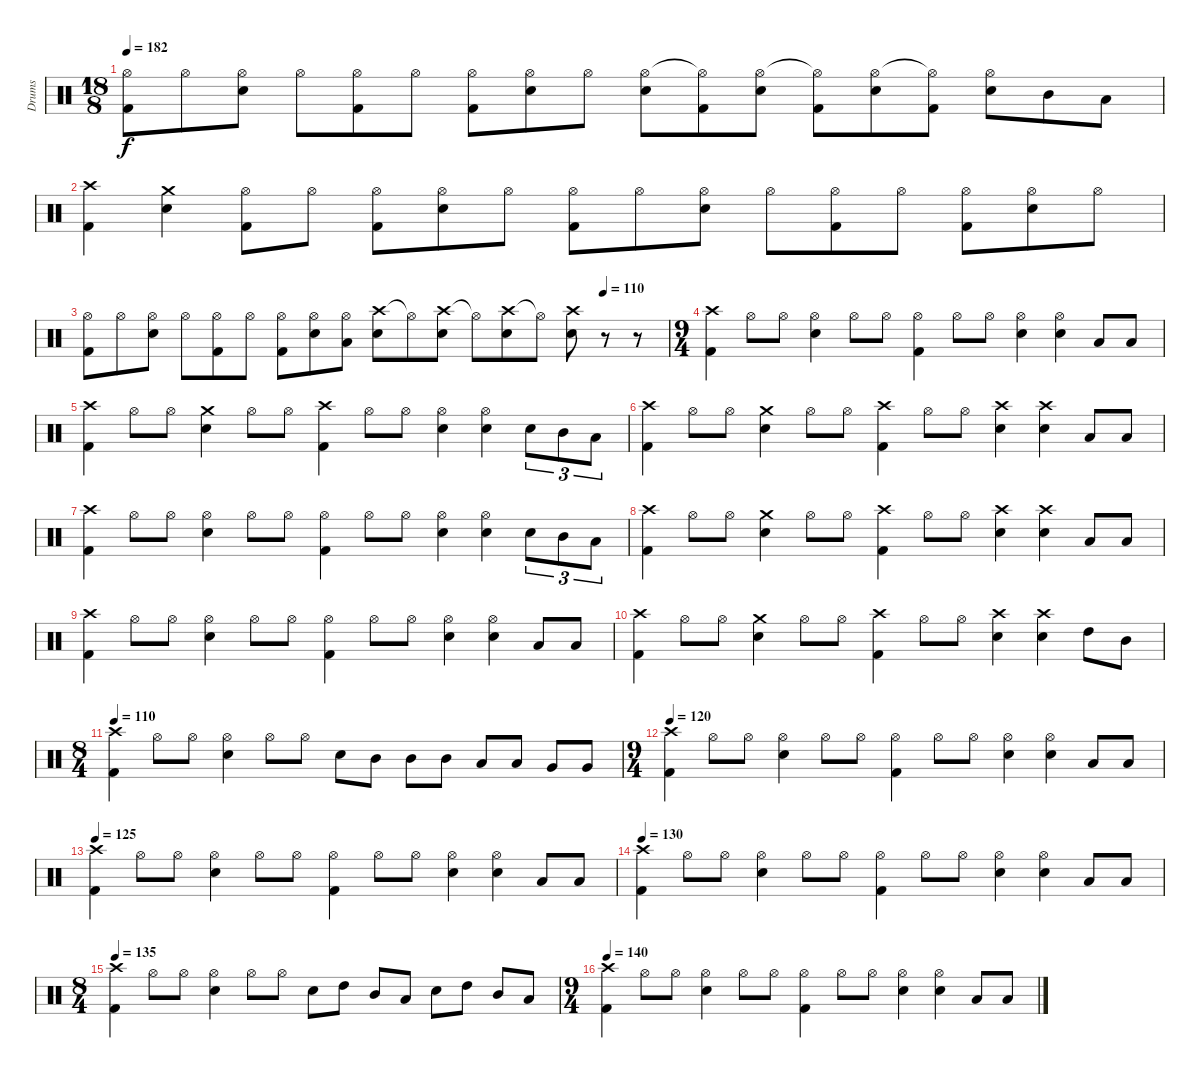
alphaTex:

\track ("Drums" "Drums") {instrument percussion}
\staff {score}
\articulation defaults
\ts (18 8)
\tempo 182
\clef neutral
\ks c
("Hi-Hat (open)" "Kick (hit) 2").8{dy f} "Hi-Hat (open)".8 ("Hi-Hat (open)" "Snare (hit) 2").8 "Hi-Hat (open)".8 ("Hi-Hat (open)" "Kick (hit) 2").8 "Hi-Hat (open)".8 ("Hi-Hat (open)" "Kick (hit) 2").8 ("Hi-Hat (open)" "Snare (hit) 2").8 "Hi-Hat (open)".8 ("Hi-Hat (open)" "Snare (hit) 2").8 ("Hi-Hat (open)"{t} "Kick (hit) 2").8 ("Hi-Hat (open)" "Snare (hit) 2").8 ("Hi-Hat (open)"{t} "Kick (hit) 2").8 ("Hi-Hat (open)" "Snare (hit) 2").8 ("Hi-Hat (open)"{t} "Kick (hit) 2").8 ("Hi-Hat (open)" "Snare (hit) 2").8 "Mid Tom (hit)".8 "Low Tom (hit)".8 |
("Crash high (hit)" "Kick (hit) 2").4 ("Crash medium (hit)" "Snare (hit) 2").4 ("Hi-Hat (open)" "Kick (hit) 2").8 "Hi-Hat (open)".8 ("Hi-Hat (open)" "Kick (hit) 2").8 ("Hi-Hat (open)" "Snare (hit) 2").8 "Hi-Hat (open)".8 ("Hi-Hat (open)" "Kick (hit) 2").8 "Hi-Hat (open)".8 ("Hi-Hat (open)" "Snare (hit) 2").8 "Hi-Hat (open)".8 ("Hi-Hat (open)" "Kick (hit) 2").8 "Hi-Hat (open)".8 ("Hi-Hat (open)" "Kick (hit) 2").8 ("Hi-Hat (open)" "Snare (hit) 2").8 "Hi-Hat (open)".8 |
\tempo (110 0.8888888888888888)
("Hi-Hat (open)" "Kick (hit) 2").8 "Hi-Hat (open)".8 ("Hi-Hat (open)" "Snare (hit) 2").8 "Hi-Hat (open)".8 ("Hi-Hat (open)" "Kick (hit) 2").8 "Hi-Hat (open)".8 ("Hi-Hat (open)" "Kick (hit) 2").8 ("Hi-Hat (open)" "Snare (hit) 2").8 ("Hi-Hat (open)" "Low Tom (hit)").8 ("Crash high (hit)" "Snare (hit) 2").8 "Hi-Hat (open)"{t}.8 ("Crash high (hit)" "Snare (hit) 2").8 "Hi-Hat (open)"{t}.8 ("Crash high (hit)" "Snare (hit) 2").8 "Hi-Hat (open)"{t}.8 ("Crash high (hit)" "Snare (hit) 2").8 r.8 r.8 |
\ts (9 4)
("Crash high (hit)" "Kick (hit) 2").4 "Hi-Hat (open)".8 "Hi-Hat (open)".8 ("Hi-Hat (open)" "Snare (hit) 2").4 "Hi-Hat (open)".8 "Hi-Hat (open)".8 ("Hi-Hat (open)" "Kick (hit) 2").4 "Hi-Hat (open)".8 "Hi-Hat (open)".8 ("Hi-Hat (open)" "Snare (hit) 2").4 ("Hi-Hat (open)" "Snare (hit) 2").4 "Low Tom (hit)".8 "Low Tom (hit)".8 |
("Crash high (hit)" "Kick (hit) 2").4 "Hi-Hat (open)".8 "Hi-Hat (open)".8 ("Crash medium (hit)" "Snare (hit) 2").4 "Hi-Hat (open)".8 "Hi-Hat (open)".8 ("Crash high (hit)" "Kick (hit) 2").4 "Hi-Hat (open)".8 "Hi-Hat (open)".8 ("Hi-Hat (open)" "Snare (hit) 2").4 ("Hi-Hat (open)" "Snare (hit) 2").4 "Snare (hit) 2".8{tu (3 2)} "Mid Tom (hit)".8{tu (3 2)} "Low Tom (hit)".8{tu (3 2)} |
("Crash high (hit)" "Kick (hit) 2").4 "Hi-Hat (open)".8 "Hi-Hat (open)".8 ("Crash medium (hit)" "Snare (hit) 2").4 "Hi-Hat (open)".8 "Hi-Hat (open)".8 ("Crash high (hit)" "Kick (hit) 2").4 "Hi-Hat (open)".8 "Hi-Hat (open)".8 ("Crash high (hit)" "Snare (hit) 2").4 ("Crash high (hit)" "Snare (hit) 2").4 "Low Tom (hit)".8 "Low Tom (hit)".8 |
("Crash high (hit)" "Kick (hit) 2").4 "Hi-Hat (open)".8 "Hi-Hat (open)".8 ("Hi-Hat (open)" "Snare (hit) 2").4 "Hi-Hat (open)".8 "Hi-Hat (open)".8 ("Hi-Hat (open)" "Kick (hit) 2").4 "Hi-Hat (open)".8 "Hi-Hat (open)".8 ("Hi-Hat (open)" "Snare (hit) 2").4 ("Hi-Hat (open)" "Snare (hit) 2").4 "Snare (hit) 2".8{tu (3 2)} "Mid Tom (hit)".8{tu (3 2)} "Low Tom (hit)".8{tu (3 2)} |
("Crash high (hit)" "Kick (hit) 2").4 "Hi-Hat (open)".8 "Hi-Hat (open)".8 ("Crash medium (hit)" "Snare (hit) 2").4 "Hi-Hat (open)".8 "Hi-Hat (open)".8 ("Crash high (hit)" "Kick (hit) 2").4 "Hi-Hat (open)".8 "Hi-Hat (open)".8 ("Crash high (hit)" "Snare (hit) 2").4 ("Crash high (hit)" "Snare (hit) 2").4 "Low Tom (hit)".8 "Low Tom (hit)".8 |
("Crash high (hit)" "Kick (hit) 2").4 "Hi-Hat (open)".8 "Hi-Hat (open)".8 ("Hi-Hat (open)" "Snare (hit) 2").4 "Hi-Hat (open)".8 "Hi-Hat (open)".8 ("Hi-Hat (open)" "Kick (hit) 2").4 "Hi-Hat (open)".8 "Hi-Hat (open)".8 ("Hi-Hat (open)" "Snare (hit) 2").4 ("Hi-Hat (open)" "Snare (hit) 2").4 "Low Tom (hit)".8 "Low Tom (hit)".8 |
("Crash high (hit)" "Kick (hit) 2").4 "Hi-Hat (open)".8 "Hi-Hat (open)".8 ("Crash medium (hit)" "Snare (hit) 2").4 "Hi-Hat (open)".8 "Hi-Hat (open)".8 ("Crash high (hit)" "Kick (hit) 2").4 "Hi-Hat (open)".8 "Hi-Hat (open)".8 ("Crash high (hit)" "Snare (hit) 2").4 ("Crash high (hit)" "Snare (hit) 2").4 "High Tom (hit)".8 "Mid Tom (hit)".8 |
\ts (8 4)
\tempo 110
("Crash high (hit)" "Kick (hit) 2").4 "Hi-Hat (open)".8 "Hi-Hat (open)".8 ("Hi-Hat (open)" "Snare (hit) 2").4 "Hi-Hat (open)".8 "Hi-Hat (open)".8 "Snare (hit) 2".8 "Mid Tom (hit)".8 "Mid Tom (hit)".8 "Mid Tom (hit)".8 "Low Tom (hit)".8 "Low Tom (hit)".8 "Very Low Tom (hit)".8 "Very Low Tom (hit)".8 |
\ts (9 4)
\tempo 120
("Crash high (hit)" "Kick (hit) 2").4 "Hi-Hat (open)".8 "Hi-Hat (open)".8 ("Hi-Hat (open)" "Snare (hit) 2").4 "Hi-Hat (open)".8 "Hi-Hat (open)".8 ("Hi-Hat (open)" "Kick (hit) 2").4 "Hi-Hat (open)".8 "Hi-Hat (open)".8 ("Hi-Hat (open)" "Snare (hit) 2").4 ("Hi-Hat (open)" "Snare (hit) 2").4 "Low Tom (hit)".8 "Low Tom (hit)".8 |
\tempo 125
("Crash high (hit)" "Kick (hit) 2").4 "Hi-Hat (open)".8 "Hi-Hat (open)".8 ("Hi-Hat (open)" "Snare (hit) 2").4 "Hi-Hat (open)".8 "Hi-Hat (open)".8 ("Hi-Hat (open)" "Kick (hit) 2").4 "Hi-Hat (open)".8 "Hi-Hat (open)".8 ("Hi-Hat (open)" "Snare (hit) 2").4 ("Hi-Hat (open)" "Snare (hit) 2").4 "Low Tom (hit)".8 "Low Tom (hit)".8 |
\tempo 130
("Crash high (hit)" "Kick (hit) 2").4 "Hi-Hat (open)".8 "Hi-Hat (open)".8 ("Hi-Hat (open)" "Snare (hit) 2").4 "Hi-Hat (open)".8 "Hi-Hat (open)".8 ("Hi-Hat (open)" "Kick (hit) 2").4 "Hi-Hat (open)".8 "Hi-Hat (open)".8 ("Hi-Hat (open)" "Snare (hit) 2").4 ("Hi-Hat (open)" "Snare (hit) 2").4 "Low Tom (hit)".8 "Low Tom (hit)".8 |
\ts (8 4)
\tempo 135
("Crash high (hit)" "Kick (hit) 2").4 "Hi-Hat (open)".8 "Hi-Hat (open)".8 ("Hi-Hat (open)" "Snare (hit) 2").4 "Hi-Hat (open)".8 "Hi-Hat (open)".8 "Snare (hit) 2".8 "High Tom (hit)".8 "Mid Tom (hit)".8 "Low Tom (hit)".8 "Snare (hit) 2".8 "High Tom (hit)".8 "Mid Tom (hit)".8 "Low Tom (hit)".8 |
\ts (9 4)
\tempo 140
("Crash high (hit)" "Kick (hit) 2").4 "Hi-Hat (open)".8 "Hi-Hat (open)".8 ("Hi-Hat (open)" "Snare (hit) 2").4 "Hi-Hat (open)".8 "Hi-Hat (open)".8 ("Hi-Hat (open)" "Kick (hit) 2").4 "Hi-Hat (open)".8 "Hi-Hat (open)".8 ("Hi-Hat (open)" "Snare (hit) 2").4 ("Hi-Hat (open)" "Snare (hit) 2").4 "Low Tom (hit)".8 "Low Tom (hit)".8
